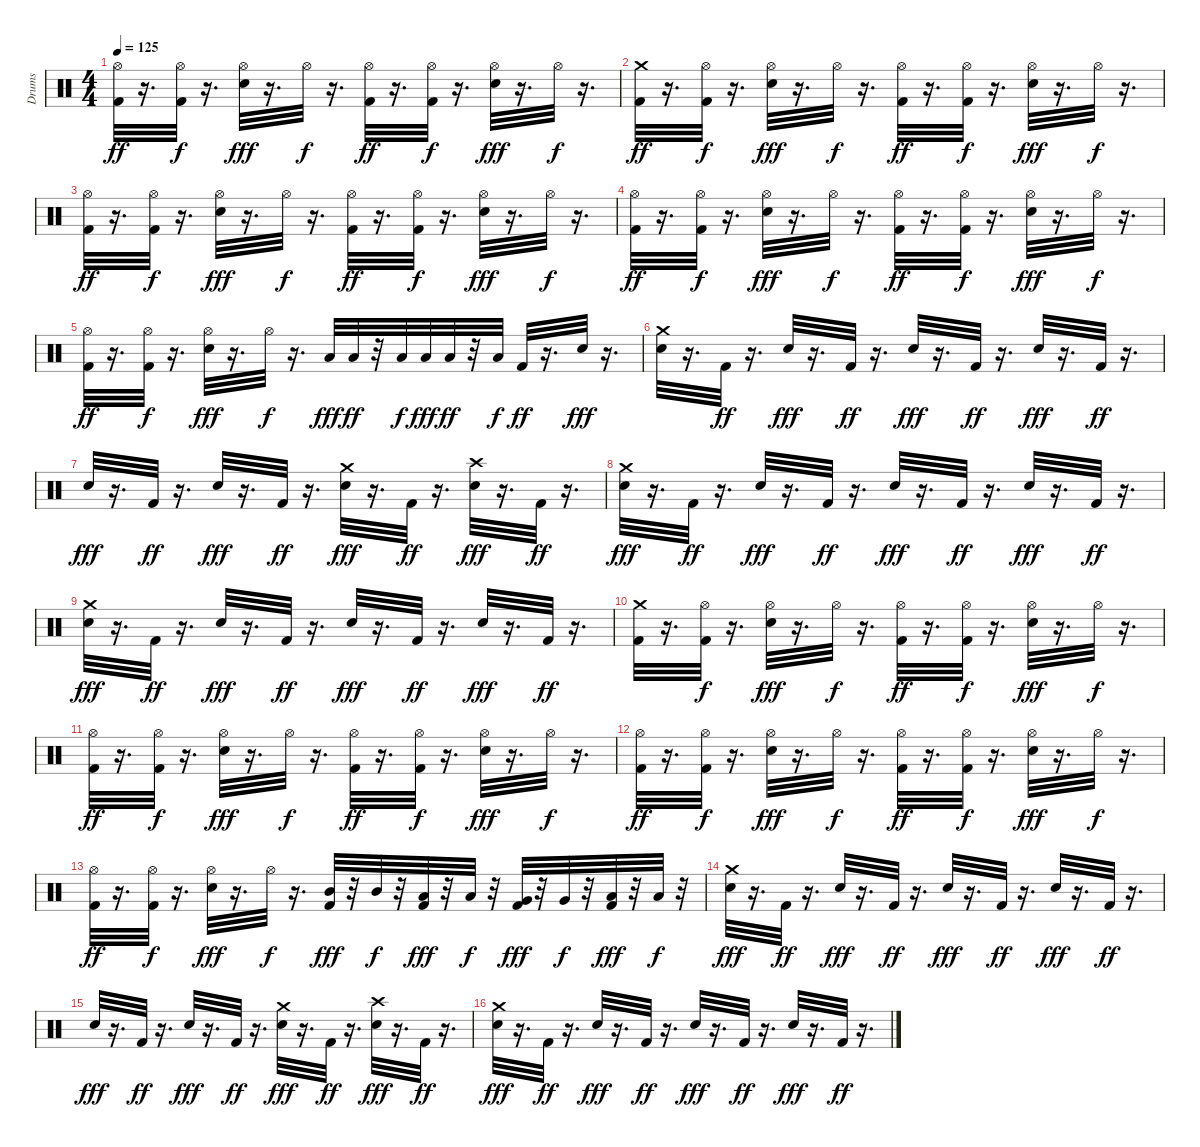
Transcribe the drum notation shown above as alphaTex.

\track ("Drums" "Drums") {instrument percussion}
\staff {score}
\articulation defaults
\ts (4 4)
\tempo 125
\clef neutral
\ks c
("Kick (hit) 2" "Hi-Hat (open)").32{dy ff} r.16{d} ("Kick (hit) 2" "Hi-Hat (open)").32{dy f} r.16{d} ("Snare (hit) 2" "Hi-Hat (open)").32{dy fff} r.16{d} "Hi-Hat (open)".32{dy f} r.16{d} ("Kick (hit) 2" "Hi-Hat (open)").32{dy ff} r.16{d} ("Kick (hit) 2" "Hi-Hat (open)").32{dy f} r.16{d} ("Snare (hit) 2" "Hi-Hat (open)").32{dy fff} r.16{d} "Hi-Hat (open)".32{dy f} r.16{d} |
("Crash medium (hit)" "Kick (hit) 2").32{dy ff} r.16{d} ("Kick (hit) 2" "Hi-Hat (open)").32{dy f} r.16{d} ("Snare (hit) 2" "Hi-Hat (open)").32{dy fff} r.16{d} "Hi-Hat (open)".32{dy f} r.16{d} ("Kick (hit) 2" "Hi-Hat (open)").32{dy ff} r.16{d} ("Kick (hit) 2" "Hi-Hat (open)").32{dy f} r.16{d} ("Snare (hit) 2" "Hi-Hat (open)").32{dy fff} r.16{d} "Hi-Hat (open)".32{dy f} r.16{d} |
("Kick (hit) 2" "Hi-Hat (open)").32{dy ff} r.16{d} ("Kick (hit) 2" "Hi-Hat (open)").32{dy f} r.16{d} ("Snare (hit) 2" "Hi-Hat (open)").32{dy fff} r.16{d} "Hi-Hat (open)".32{dy f} r.16{d} ("Kick (hit) 2" "Hi-Hat (open)").32{dy ff} r.16{d} ("Kick (hit) 2" "Hi-Hat (open)").32{dy f} r.16{d} ("Snare (hit) 2" "Hi-Hat (open)").32{dy fff} r.16{d} "Hi-Hat (open)".32{dy f} r.16{d} |
("Kick (hit) 2" "Hi-Hat (open)").32{dy ff} r.16{d} ("Kick (hit) 2" "Hi-Hat (open)").32{dy f} r.16{d} ("Snare (hit) 2" "Hi-Hat (open)").32{dy fff} r.16{d} "Hi-Hat (open)".32{dy f} r.16{d} ("Kick (hit) 2" "Hi-Hat (open)").32{dy ff} r.16{d} ("Kick (hit) 2" "Hi-Hat (open)").32{dy f} r.16{d} ("Snare (hit) 2" "Hi-Hat (open)").32{dy fff} r.16{d} "Hi-Hat (open)".32{dy f} r.16{d} |
("Kick (hit) 2" "Hi-Hat (open)").32{dy ff} r.16{d} ("Kick (hit) 2" "Hi-Hat (open)").32{dy f} r.16{d} ("Snare (hit) 2" "Hi-Hat (open)").32{dy fff} r.16{d} "Hi-Hat (open)".32{dy f} r.16{d} "Low Tom (hit)".32{dy fff} "Low Tom (hit)".32{dy ff} r.32 "Low Tom (hit)".32{dy f} "Low Floor Tom (hit)".32{dy fff} "Low Floor Tom (hit)".32{dy ff} r.32 "Low Floor Tom (hit)".32{dy f} "Kick (hit) 2".32{dy ff} r.16{d} "Snare (hit) 2".32{dy fff} r.16{d} |
("Crash medium (hit)" "Snare (hit) 2").32 r.16{d} "Kick (hit) 2".32{dy ff} r.16{d} "Snare (hit) 2".32{dy fff} r.16{d} "Kick (hit) 2".32{dy ff} r.16{d} "Snare (hit) 2".32{dy fff} r.16{d} "Kick (hit) 2".32{dy ff} r.16{d} "Snare (hit) 2".32{dy fff} r.16{d} "Kick (hit) 2".32{dy ff} r.16{d} |
"Snare (hit) 2".32{dy fff} r.16{d} "Kick (hit) 2".32{dy ff} r.16{d} "Snare (hit) 2".32{dy fff} r.16{d} "Kick (hit) 2".32{dy ff} r.16{d} ("Crash medium (hit)" "Snare (hit) 2").32{dy fff} r.16{d} "Kick (hit) 2".32{dy ff} r.16{d} ("Crash high (hit)" "Snare (hit) 2").32{dy fff} r.16{d} "Kick (hit) 2".32{dy ff} r.16{d} |
("Snare (hit) 2" "Crash medium (hit)").32{dy fff} r.16{d} "Kick (hit) 2".32{dy ff} r.16{d} "Snare (hit) 2".32{dy fff} r.16{d} "Kick (hit) 2".32{dy ff} r.16{d} "Snare (hit) 2".32{dy fff} r.16{d} "Kick (hit) 2".32{dy ff} r.16{d} "Snare (hit) 2".32{dy fff} r.16{d} "Kick (hit) 2".32{dy ff} r.16{d} |
("Snare (hit) 2" "Crash medium (hit)").32{dy fff} r.16{d} "Kick (hit) 2".32{dy ff} r.16{d} "Snare (hit) 2".32{dy fff} r.16{d} "Kick (hit) 2".32{dy ff} r.16{d} "Snare (hit) 2".32{dy fff} r.16{d} "Kick (hit) 2".32{dy ff} r.16{d} "Snare (hit) 2".32{dy fff} r.16{d} "Kick (hit) 2".32{dy ff} r.16{d} |
("Crash medium (hit)" "Kick (hit) 2").32 r.16{d} ("Kick (hit) 2" "Hi-Hat (open)").32{dy f} r.16{d} ("Snare (hit) 2" "Hi-Hat (open)").32{dy fff} r.16{d} "Hi-Hat (open)".32{dy f} r.16{d} ("Kick (hit) 2" "Hi-Hat (open)").32{dy ff} r.16{d} ("Kick (hit) 2" "Hi-Hat (open)").32{dy f} r.16{d} ("Snare (hit) 2" "Hi-Hat (open)").32{dy fff} r.16{d} "Hi-Hat (open)".32{dy f} r.16{d} |
("Kick (hit) 2" "Hi-Hat (open)").32{dy ff} r.16{d} ("Kick (hit) 2" "Hi-Hat (open)").32{dy f} r.16{d} ("Snare (hit) 2" "Hi-Hat (open)").32{dy fff} r.16{d} "Hi-Hat (open)".32{dy f} r.16{d} ("Kick (hit) 2" "Hi-Hat (open)").32{dy ff} r.16{d} ("Kick (hit) 2" "Hi-Hat (open)").32{dy f} r.16{d} ("Snare (hit) 2" "Hi-Hat (open)").32{dy fff} r.16{d} "Hi-Hat (open)".32{dy f} r.16{d} |
("Kick (hit) 2" "Hi-Hat (open)").32{dy ff} r.16{d} ("Kick (hit) 2" "Hi-Hat (open)").32{dy f} r.16{d} ("Snare (hit) 2" "Hi-Hat (open)").32{dy fff} r.16{d} "Hi-Hat (open)".32{dy f} r.16{d} ("Kick (hit) 2" "Hi-Hat (open)").32{dy ff} r.16{d} ("Kick (hit) 2" "Hi-Hat (open)").32{dy f} r.16{d} ("Snare (hit) 2" "Hi-Hat (open)").32{dy fff} r.16{d} "Hi-Hat (open)".32{dy f} r.16{d} |
("Kick (hit) 2" "Hi-Hat (open)").32{dy ff} r.16{d} ("Kick (hit) 2" "Hi-Hat (open)").32{dy f} r.16{d} ("Snare (hit) 2" "Hi-Hat (open)").32{dy fff} r.16{d} "Hi-Hat (open)".32{dy f} r.16{d} ("Kick (hit) 2" "Mid Tom (hit)").32{dy fff} r.32 "Mid Tom (hit)".32{dy f} r.32 ("Kick (hit) 2" "Low Tom (hit)").32{dy fff} r.32 "Low Tom (hit)".32{dy f} r.32 ("Kick (hit) 2" "Very Low Tom (hit)").32{dy fff} r.32 "Very Low Tom (hit)".32{dy f} r.32 ("Kick (hit) 2" "Low Floor Tom (hit)").32{dy fff} r.32 "Low Floor Tom (hit)".32{dy f} r.32 |
("Crash medium (hit)" "Snare (hit) 2").32{dy fff} r.16{d} "Kick (hit) 2".32{dy ff} r.16{d} "Snare (hit) 2".32{dy fff} r.16{d} "Kick (hit) 2".32{dy ff} r.16{d} "Snare (hit) 2".32{dy fff} r.16{d} "Kick (hit) 2".32{dy ff} r.16{d} "Snare (hit) 2".32{dy fff} r.16{d} "Kick (hit) 2".32{dy ff} r.16{d} |
"Snare (hit) 2".32{dy fff} r.16{d} "Kick (hit) 2".32{dy ff} r.16{d} "Snare (hit) 2".32{dy fff} r.16{d} "Kick (hit) 2".32{dy ff} r.16{d} ("Crash medium (hit)" "Snare (hit) 2").32{dy fff} r.16{d} "Kick (hit) 2".32{dy ff} r.16{d} ("Crash high (hit)" "Snare (hit) 2").32{dy fff} r.16{d} "Kick (hit) 2".32{dy ff} r.16{d} |
("Snare (hit) 2" "Crash medium (hit)").32{dy fff} r.16{d} "Kick (hit) 2".32{dy ff} r.16{d} "Snare (hit) 2".32{dy fff} r.16{d} "Kick (hit) 2".32{dy ff} r.16{d} "Snare (hit) 2".32{dy fff} r.16{d} "Kick (hit) 2".32{dy ff} r.16{d} "Snare (hit) 2".32{dy fff} r.16{d} "Kick (hit) 2".32{dy ff} r.16{d}
